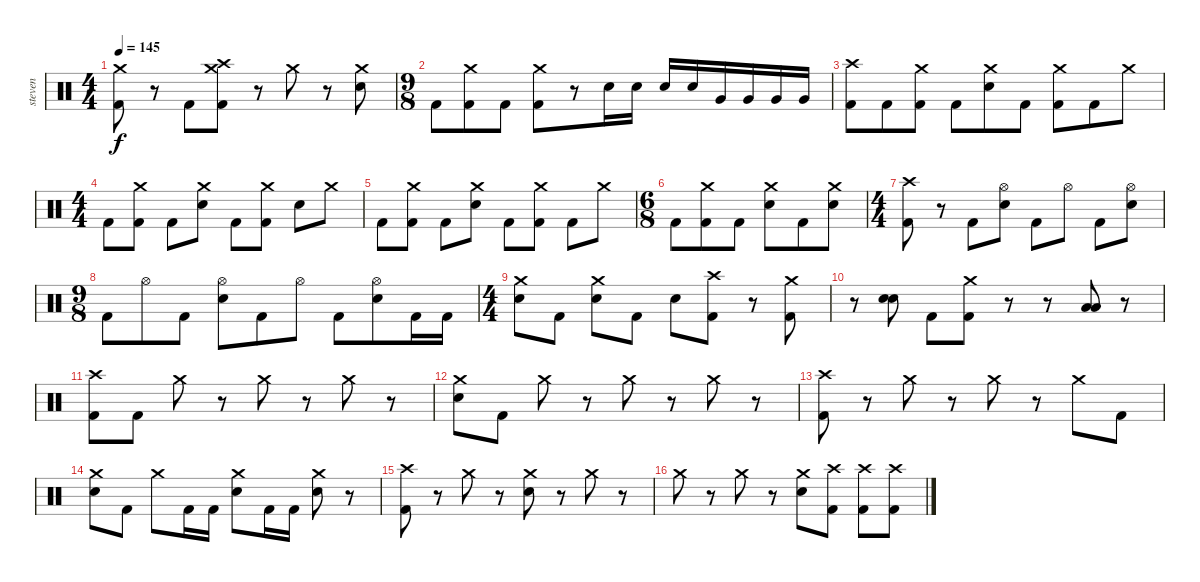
\track ("steven" "steven") {instrument percussion}
\staff {score}
\articulation defaults
\ts (4 4)
\tempo 145
\clef neutral
\ks c
("Crash medium (hit)" "Kick (hit) 2").8{dy f} r.8 "Kick (hit) 2".8 ("Crash medium (hit)" "Crash high (hit)" "Kick (hit) 2").8 r.8 "Crash medium (hit)".8 r.8 ("Crash medium (hit)" "Electric Snare (hit)").8 |
\ts (9 8)
"Kick (hit) 2".8 ("Crash medium (hit)" "Kick (hit) 2").8 "Kick (hit) 2".8 ("Crash medium (hit)" "Kick (hit) 2").8 r.8 "Electric Snare (hit)".16 "Electric Snare (hit)".16 "Electric Snare (hit)".16 "Electric Snare (hit)".16 "Very Low Tom (hit)".16 "Very Low Tom (hit)".16 "Very Low Tom (hit)".16 "Very Low Tom (hit)".16 |
("Crash high (hit)" "Kick (hit) 2").8 "Kick (hit) 2".8 ("Crash medium (hit)" "Kick (hit) 2").8 "Kick (hit) 2".8 ("Crash medium (hit)" "Electric Snare (hit)").8 "Kick (hit) 2".8 ("Crash medium (hit)" "Kick (hit) 2").8 "Kick (hit) 2".8 "Crash medium (hit)".8 |
\ts (4 4)
"Kick (hit) 2".8 ("Crash medium (hit)" "Kick (hit) 2").8 "Kick (hit) 2".8 ("Crash medium (hit)" "Electric Snare (hit)").8 "Kick (hit) 2".8 ("Crash medium (hit)" "Kick (hit) 2").8 "Electric Snare (hit)".8 "Crash medium (hit)".8 |
"Kick (hit) 2".8 ("Crash medium (hit)" "Kick (hit) 2").8 "Kick (hit) 2".8 ("Crash medium (hit)" "Electric Snare (hit)").8 "Kick (hit) 2".8 ("Crash medium (hit)" "Kick (hit) 2").8 "Kick (hit) 2".8 "Crash medium (hit)".8 |
\ts (6 8)
"Kick (hit) 2".8 ("Crash medium (hit)" "Kick (hit) 2").8 "Kick (hit) 2".8 ("Crash medium (hit)" "Electric Snare (hit)").8 "Kick (hit) 2".8 ("Crash medium (hit)" "Electric Snare (hit)").8 |
\ts (4 4)
("Crash high (hit)" "Kick (hit) 2").8 r.8 "Kick (hit) 2".8 ("Hi-Hat (open)" "Electric Snare (hit)").8 "Kick (hit) 2".8 "Hi-Hat (open)".8 "Kick (hit) 2".8 ("Hi-Hat (open)" "Electric Snare (hit)").8 |
\ts (9 8)
"Kick (hit) 2".8 "Hi-Hat (open)".8 "Kick (hit) 2".8 ("Hi-Hat (open)" "Electric Snare (hit)").8 "Kick (hit) 2".8 "Hi-Hat (open)".8 "Kick (hit) 2".8 ("Hi-Hat (open)" "Electric Snare (hit)").8 "Kick (hit) 2".16 "Kick (hit) 2".16 |
\ts (4 4)
("Crash medium (hit)" "Electric Snare (hit)").8 "Kick (hit) 2".8 ("Crash medium (hit)" "Electric Snare (hit)").8 "Kick (hit) 2".8 "Electric Snare (hit)".8 ("Crash high (hit)" "Kick (hit) 2").8 r.8 ("Crash medium (hit)" "Kick (hit) 2").8 |
r.8 ("Electric Snare (hit)" "Electric Snare (hit)").8 "Kick (hit) 2".8 ("Crash medium (hit)" "Kick (hit) 2").8 r.8 r.8 ("Low Floor Tom (hit)" "Low Floor Tom (hit)").8 r.8 |
("Crash high (hit)" "Kick (hit) 2").8 "Kick (hit) 2".8 "Crash medium (hit)".8 r.8 "Crash medium (hit)".8 r.8 "Crash medium (hit)".8 r.8 |
("Crash medium (hit)" "Electric Snare (hit)").8 "Kick (hit) 2".8 "Crash medium (hit)".8 r.8 "Crash medium (hit)".8 r.8 "Crash medium (hit)".8 r.8 |
("Crash high (hit)" "Kick (hit) 2").8 r.8 "Crash medium (hit)".8 r.8 "Crash medium (hit)".8 r.8 "Crash medium (hit)".8 "Kick (hit) 2".8 |
("Crash medium (hit)" "Electric Snare (hit)").8 "Kick (hit) 2".8 "Crash medium (hit)".8 "Kick (hit) 2".16 "Kick (hit) 2".16 ("Crash medium (hit)" "Electric Snare (hit)").8 "Kick (hit) 2".16 "Kick (hit) 2".16 ("Crash medium (hit)" "Electric Snare (hit)").8 r.8 |
("Crash high (hit)" "Kick (hit) 2").8 r.8 "Crash medium (hit)".8 r.8 ("Crash medium (hit)" "Electric Snare (hit)").8 r.8 "Crash medium (hit)".8 r.8 |
"Crash medium (hit)".8 r.8 "Crash medium (hit)".8 r.8 ("Crash medium (hit)" "Electric Snare (hit)").8 ("Crash high (hit)" "Kick (hit) 2").8 ("Crash high (hit)" "Kick (hit) 2").8 ("Crash high (hit)" "Kick (hit) 2").8
